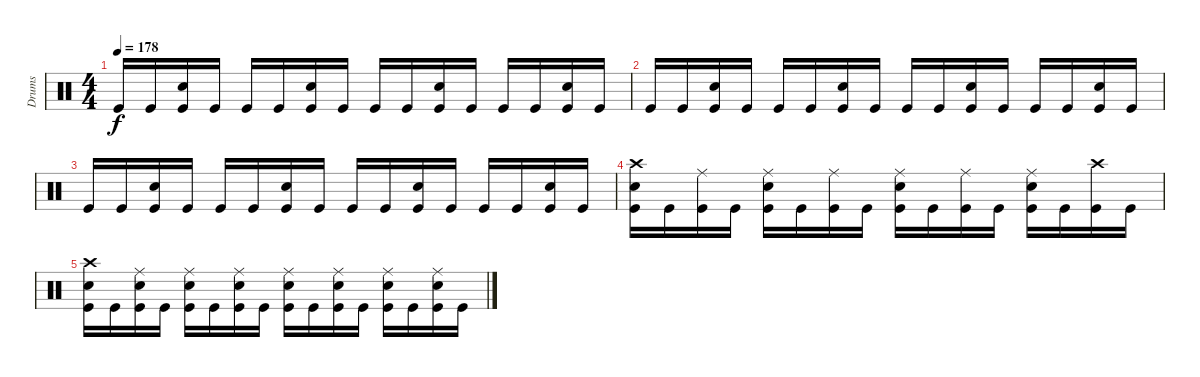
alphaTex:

\track ("Drums" "Drums") {instrument percussion}
\staff {score}
\articulation defaults
\ts (4 4)
\tempo 178
\clef neutral
\ks c "Kick (hit)".16{dy f} "Kick (hit)".16
("Kick (hit)" "Snare (hit) 2").16 "Kick (hit)".16 "Kick (hit)".16 "Kick (hit)".16 ("Kick (hit)" "Snare (hit) 2").16 "Kick (hit)".16 "Kick (hit)".16 "Kick (hit)".16 ("Kick (hit)" "Snare (hit) 2").16 "Kick (hit)".16 "Kick (hit)".16 "Kick (hit)".16 ("Kick (hit)" "Snare (hit) 2").16 "Kick (hit)".16 |
"Kick (hit)".16 "Kick (hit)".16 ("Kick (hit)" "Snare (hit) 2").16 "Kick (hit)".16 "Kick (hit)".16 "Kick (hit)".16 ("Kick (hit)" "Snare (hit) 2").16 "Kick (hit)".16 "Kick (hit)".16 "Kick (hit)".16 ("Kick (hit)" "Snare (hit) 2").16 "Kick (hit)".16 "Kick (hit)".16 "Kick (hit)".16 ("Kick (hit)" "Snare (hit) 2").16 "Kick (hit)".16 |
"Kick (hit)".16 "Kick (hit)".16 ("Kick (hit)" "Snare (hit) 2").16 "Kick (hit)".16 "Kick (hit)".16 "Kick (hit)".16 ("Kick (hit)" "Snare (hit) 2").16 "Kick (hit)".16 "Kick (hit)".16 "Kick (hit)".16 ("Kick (hit)" "Snare (hit) 2").16 "Kick (hit)".16 "Kick (hit)".16 "Kick (hit)".16 ("Kick (hit)" "Snare (hit) 2").16 "Kick (hit)".16 |
("Kick (hit)" "Snare (hit) 2" "Crash high (hit)").16 "Kick (hit)".16 ("Kick (hit)" "Ride (middle)").16 "Kick (hit)".16 ("Kick (hit)" "Snare (hit) 2" "Ride (middle)").16 "Kick (hit)".16 ("Kick (hit)" "Ride (middle)").16 "Kick (hit)".16 ("Kick (hit)" "Snare (hit) 2" "Ride (middle)").16 "Kick (hit)".16 ("Kick (hit)" "Ride (middle)").16 "Kick (hit)".16 ("Kick (hit)" "Snare (hit) 2" "Ride (middle)").16 "Kick (hit)".16 ("Kick (hit)" "Crash high (hit)").16 "Kick (hit)".16 |
("Kick (hit)" "Snare (hit) 2" "Crash high (hit)").16 "Kick (hit)".16 ("Kick (hit)" "Snare (hit) 2" "Ride (middle)").16 "Kick (hit)".16 ("Kick (hit)" "Snare (hit) 2" "Ride (middle)").16 "Kick (hit)".16 ("Kick (hit)" "Snare (hit) 2" "Ride (middle)").16 "Kick (hit)".16 ("Kick (hit)" "Snare (hit) 2" "Ride (middle)").16 "Kick (hit)".16 ("Kick (hit)" "Snare (hit) 2" "Ride (middle)").16 "Kick (hit)".16 ("Kick (hit)" "Snare (hit) 2" "Ride (middle)").16 "Kick (hit)".16 ("Kick (hit)" "Snare (hit) 2" "Ride (middle)").16 "Kick (hit)".16
